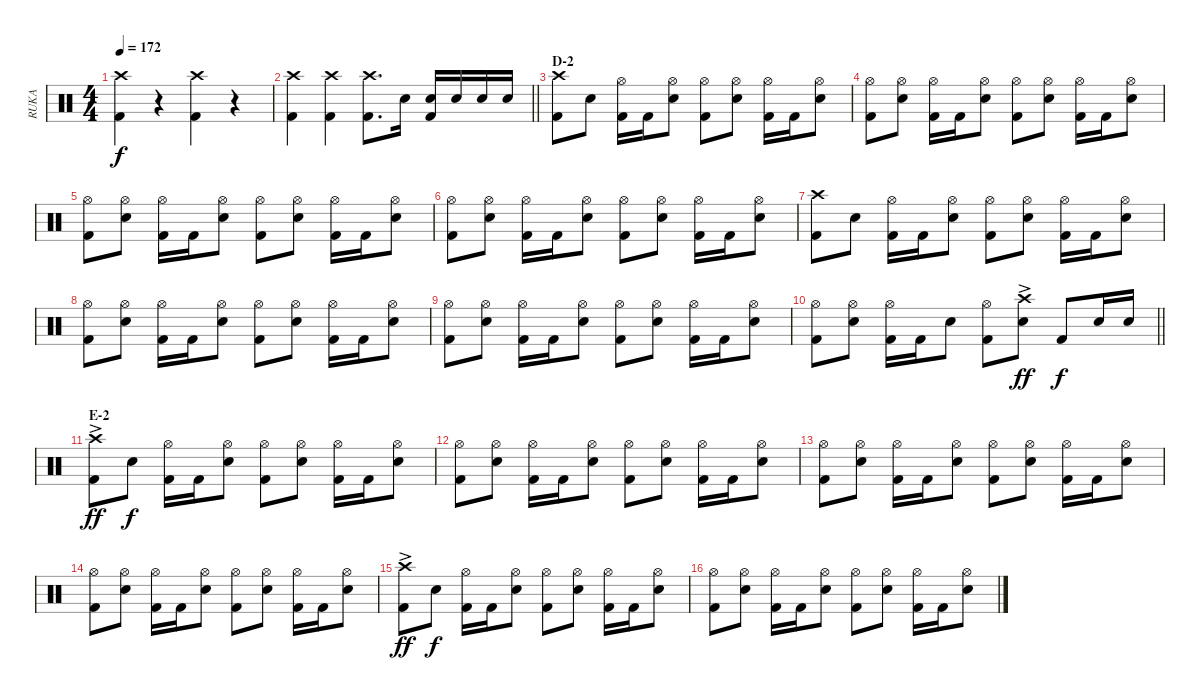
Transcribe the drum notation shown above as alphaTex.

\track ("RUKA" "RUKA") {instrument percussion}
\staff {score}
\articulation defaults
\ts (4 4)
\tempo 172
\clef neutral
\ks c
("Crash high (hit)" "Kick (hit) 2").4{dy f} r.4 ("Crash high (hit)" "Kick (hit) 2").4 r.4 |
\barLineRight lightlight
("Crash high (hit)" "Kick (hit) 2").4 ("Crash high (hit)" "Kick (hit) 2").4 ("Crash high (hit)" "Kick (hit) 2").8{d} "Snare (hit) 2".16 ("Snare (hit) 2" "Kick (hit) 2").16 "Snare (hit) 2".16 "Snare (hit) 2".16 "Snare (hit) 2".16 |
\section ("" "D-2")
("Crash high (hit)" "Kick (hit) 2").8 "Snare (hit) 2".8 ("Hi-Hat (open)" "Kick (hit) 2").16 "Kick (hit) 2".16 ("Hi-Hat (open)" "Snare (hit) 2").8 ("Hi-Hat (open)" "Kick (hit) 2").8 ("Hi-Hat (open)" "Snare (hit) 2").8 ("Hi-Hat (open)" "Kick (hit) 2").16 "Kick (hit) 2".16 ("Hi-Hat (open)" "Snare (hit) 2").8 |
("Hi-Hat (open)" "Kick (hit) 2").8 ("Hi-Hat (open)" "Snare (hit) 2").8 ("Hi-Hat (open)" "Kick (hit) 2").16 "Kick (hit) 2".16 ("Hi-Hat (open)" "Snare (hit) 2").8 ("Hi-Hat (open)" "Kick (hit) 2").8 ("Hi-Hat (open)" "Snare (hit) 2").8 ("Hi-Hat (open)" "Kick (hit) 2").16 "Kick (hit) 2".16 ("Hi-Hat (open)" "Snare (hit) 2").8 |
("Hi-Hat (open)" "Kick (hit) 2").8 ("Hi-Hat (open)" "Snare (hit) 2").8 ("Hi-Hat (open)" "Kick (hit) 2").16 "Kick (hit) 2".16 ("Hi-Hat (open)" "Snare (hit) 2").8 ("Hi-Hat (open)" "Kick (hit) 2").8 ("Hi-Hat (open)" "Snare (hit) 2").8 ("Hi-Hat (open)" "Kick (hit) 2").16 "Kick (hit) 2".16 ("Hi-Hat (open)" "Snare (hit) 2").8 |
("Hi-Hat (open)" "Kick (hit) 2").8 ("Hi-Hat (open)" "Snare (hit) 2").8 ("Hi-Hat (open)" "Kick (hit) 2").16 "Kick (hit) 2".16 ("Hi-Hat (open)" "Snare (hit) 2").8 ("Hi-Hat (open)" "Kick (hit) 2").8 ("Hi-Hat (open)" "Snare (hit) 2").8 ("Hi-Hat (open)" "Kick (hit) 2").16 "Kick (hit) 2".16 ("Hi-Hat (open)" "Snare (hit) 2").8 |
("Crash high (hit)" "Kick (hit) 2").8 "Snare (hit) 2".8 ("Hi-Hat (open)" "Kick (hit) 2").16 "Kick (hit) 2".16 ("Hi-Hat (open)" "Snare (hit) 2").8 ("Hi-Hat (open)" "Kick (hit) 2").8 ("Hi-Hat (open)" "Snare (hit) 2").8 ("Hi-Hat (open)" "Kick (hit) 2").16 "Kick (hit) 2".16 ("Hi-Hat (open)" "Snare (hit) 2").8 |
("Hi-Hat (open)" "Kick (hit) 2").8 ("Hi-Hat (open)" "Snare (hit) 2").8 ("Hi-Hat (open)" "Kick (hit) 2").16 "Kick (hit) 2".16 ("Hi-Hat (open)" "Snare (hit) 2").8 ("Hi-Hat (open)" "Kick (hit) 2").8 ("Hi-Hat (open)" "Snare (hit) 2").8 ("Hi-Hat (open)" "Kick (hit) 2").16 "Kick (hit) 2".16 ("Hi-Hat (open)" "Snare (hit) 2").8 |
("Hi-Hat (open)" "Kick (hit) 2").8 ("Hi-Hat (open)" "Snare (hit) 2").8 ("Hi-Hat (open)" "Kick (hit) 2").16 "Kick (hit) 2".16 ("Hi-Hat (open)" "Snare (hit) 2").8 ("Hi-Hat (open)" "Kick (hit) 2").8 ("Hi-Hat (open)" "Snare (hit) 2").8 ("Hi-Hat (open)" "Kick (hit) 2").16 "Kick (hit) 2".16 ("Hi-Hat (open)" "Snare (hit) 2").8 |
\barLineRight lightlight
("Hi-Hat (open)" "Kick (hit) 2").8 ("Hi-Hat (open)" "Snare (hit) 2").8 ("Hi-Hat (open)" "Kick (hit) 2").16 "Kick (hit) 2".16 "Snare (hit) 2".8 ("Hi-Hat (open)" "Kick (hit) 2").8 ("Crash high (hit)"{ac} "Snare (hit) 2").8{dy ff} "Kick (hit) 2".8{dy f} "Snare (hit) 2".16 "Snare (hit) 2".16 |
\section ("" "E-2")
("Crash high (hit)"{ac} "Kick (hit) 2").8{dy ff} "Snare (hit) 2".8{dy f} ("Hi-Hat (open)" "Kick (hit) 2").16 "Kick (hit) 2".16 ("Hi-Hat (open)" "Snare (hit) 2").8 ("Hi-Hat (open)" "Kick (hit) 2").8 ("Hi-Hat (open)" "Snare (hit) 2").8 ("Hi-Hat (open)" "Kick (hit) 2").16 "Kick (hit) 2".16 ("Hi-Hat (open)" "Snare (hit) 2").8 |
("Hi-Hat (open)" "Kick (hit) 2").8 ("Hi-Hat (open)" "Snare (hit) 2").8 ("Hi-Hat (open)" "Kick (hit) 2").16 "Kick (hit) 2".16 ("Hi-Hat (open)" "Snare (hit) 2").8 ("Hi-Hat (open)" "Kick (hit) 2").8 ("Hi-Hat (open)" "Snare (hit) 2").8 ("Hi-Hat (open)" "Kick (hit) 2").16 "Kick (hit) 2".16 ("Hi-Hat (open)" "Snare (hit) 2").8 |
("Hi-Hat (open)" "Kick (hit) 2").8 ("Hi-Hat (open)" "Snare (hit) 2").8 ("Hi-Hat (open)" "Kick (hit) 2").16 "Kick (hit) 2".16 ("Hi-Hat (open)" "Snare (hit) 2").8 ("Hi-Hat (open)" "Kick (hit) 2").8 ("Hi-Hat (open)" "Snare (hit) 2").8 ("Hi-Hat (open)" "Kick (hit) 2").16 "Kick (hit) 2".16 ("Hi-Hat (open)" "Snare (hit) 2").8 |
("Hi-Hat (open)" "Kick (hit) 2").8 ("Hi-Hat (open)" "Snare (hit) 2").8 ("Hi-Hat (open)" "Kick (hit) 2").16 "Kick (hit) 2".16 ("Hi-Hat (open)" "Snare (hit) 2").8 ("Hi-Hat (open)" "Kick (hit) 2").8 ("Hi-Hat (open)" "Snare (hit) 2").8 ("Hi-Hat (open)" "Kick (hit) 2").16 "Kick (hit) 2".16 ("Hi-Hat (open)" "Snare (hit) 2").8 |
("Crash high (hit)"{ac} "Kick (hit) 2").8{dy ff} "Snare (hit) 2".8{dy f} ("Hi-Hat (open)" "Kick (hit) 2").16 "Kick (hit) 2".16 ("Hi-Hat (open)" "Snare (hit) 2").8 ("Hi-Hat (open)" "Kick (hit) 2").8 ("Hi-Hat (open)" "Snare (hit) 2").8 ("Hi-Hat (open)" "Kick (hit) 2").16 "Kick (hit) 2".16 ("Hi-Hat (open)" "Snare (hit) 2").8 |
("Hi-Hat (open)" "Kick (hit) 2").8 ("Hi-Hat (open)" "Snare (hit) 2").8 ("Hi-Hat (open)" "Kick (hit) 2").16 "Kick (hit) 2".16 ("Hi-Hat (open)" "Snare (hit) 2").8 ("Hi-Hat (open)" "Kick (hit) 2").8 ("Hi-Hat (open)" "Snare (hit) 2").8 ("Hi-Hat (open)" "Kick (hit) 2").16 "Kick (hit) 2".16 ("Hi-Hat (open)" "Snare (hit) 2").8
